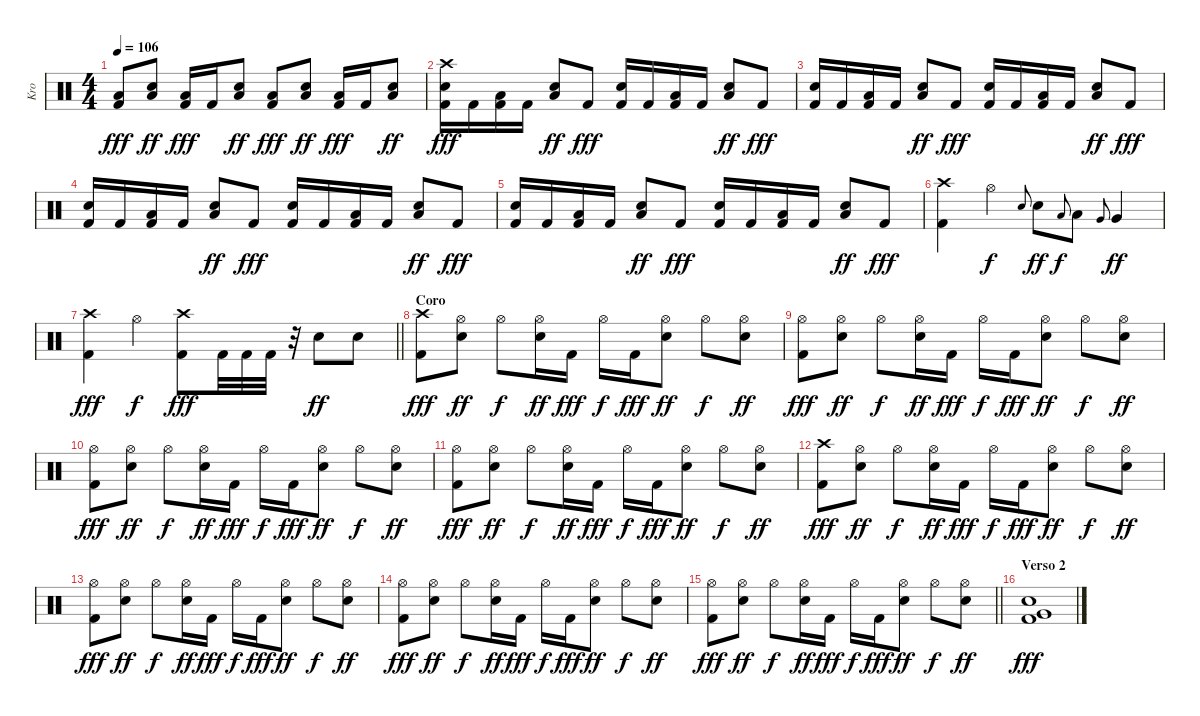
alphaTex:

\track ("Kro" "Kro") {instrument percussion}
\staff {score}
\articulation defaults
\ts (4 4)
\tempo 106
\clef neutral
\ks c
("Low Floor Tom (hit)" "Kick (hit) 2").8{dy fff} ("Low Floor Tom (hit)" "Electric Snare (hit)").8{dy ff} ("Low Floor Tom (hit)" "Kick (hit) 2").16{dy fff} "Kick (hit) 2".16 ("Low Floor Tom (hit)" "Electric Snare (hit)").8{dy ff} ("Low Floor Tom (hit)" "Kick (hit) 2").8{dy fff} ("Low Floor Tom (hit)" "Electric Snare (hit)").8{dy ff} ("Low Floor Tom (hit)" "Kick (hit) 2").16{dy fff} "Kick (hit) 2".16 ("Low Floor Tom (hit)" "Electric Snare (hit)").8{dy ff} |
("Crash high (hit)" "Electric Snare (hit)" "Kick (hit) 2").16{dy fff} "Kick (hit) 2".16 ("Low Floor Tom (hit)" "Kick (hit) 2").16 "Kick (hit) 2".16 ("Low Floor Tom (hit)" "Electric Snare (hit)").8{dy ff} "Kick (hit) 2".8{dy fff} ("Electric Snare (hit)" "Kick (hit) 2").16 "Kick (hit) 2".16 ("Low Floor Tom (hit)" "Kick (hit) 2").16 "Kick (hit) 2".16 ("Low Floor Tom (hit)" "Electric Snare (hit)").8{dy ff} "Kick (hit) 2".8{dy fff} |
("Electric Snare (hit)" "Kick (hit) 2").16 "Kick (hit) 2".16 ("Low Floor Tom (hit)" "Kick (hit) 2").16 "Kick (hit) 2".16 ("Low Floor Tom (hit)" "Electric Snare (hit)").8{dy ff} "Kick (hit) 2".8{dy fff} ("Electric Snare (hit)" "Kick (hit) 2").16 "Kick (hit) 2".16 ("Low Floor Tom (hit)" "Kick (hit) 2").16 "Kick (hit) 2".16 ("Low Floor Tom (hit)" "Electric Snare (hit)").8{dy ff} "Kick (hit) 2".8{dy fff} |
("Electric Snare (hit)" "Kick (hit) 2").16 "Kick (hit) 2".16 ("Low Floor Tom (hit)" "Kick (hit) 2").16 "Kick (hit) 2".16 ("Low Floor Tom (hit)" "Electric Snare (hit)").8{dy ff} "Kick (hit) 2".8{dy fff} ("Electric Snare (hit)" "Kick (hit) 2").16 "Kick (hit) 2".16 ("Low Floor Tom (hit)" "Kick (hit) 2").16 "Kick (hit) 2".16 ("Low Floor Tom (hit)" "Electric Snare (hit)").8{dy ff} "Kick (hit) 2".8{dy fff} |
("Electric Snare (hit)" "Kick (hit) 2").16 "Kick (hit) 2".16 ("Low Floor Tom (hit)" "Kick (hit) 2").16 "Kick (hit) 2".16 ("Low Floor Tom (hit)" "Electric Snare (hit)").8{dy ff} "Kick (hit) 2".8{dy fff} ("Electric Snare (hit)" "Kick (hit) 2").16 "Kick (hit) 2".16 ("Low Floor Tom (hit)" "Kick (hit) 2").16 "Kick (hit) 2".16 ("Low Floor Tom (hit)" "Electric Snare (hit)").8{dy ff} "Kick (hit) 2".8{dy fff} |
("Crash high (hit)" "Kick (hit) 2").4 "Hi-Hat (open)".4{dy f} "Electric Snare (hit)".8{gr onbeat} "Electric Snare (hit)".8{dy ff} "Low Tom (hit)".8{gr onbeat dy f} "Low Tom (hit)".8 "Very Low Tom (hit)".8{gr onbeat} "Very Low Tom (hit)".4{dy ff} |
\barLineRight lightlight
("Crash high (hit)" "Kick (hit) 2").4{dy fff} "Hi-Hat (open)".4{dy f} ("Crash high (hit)" "Kick (hit) 2").8{dy fff} "Kick (hit) 2".32 "Kick (hit) 2".32 "Kick (hit) 2".32 r.32 "Electric Snare (hit)".8{dy ff} "Electric Snare (hit)".8 |
\section ("" "Coro")
("Crash high (hit)" "Kick (hit) 2").8{dy fff} ("Hi-Hat (open)" "Electric Snare (hit)").8{dy ff} "Hi-Hat (open)".8{dy f} ("Hi-Hat (open)" "Electric Snare (hit)").16{dy ff} "Kick (hit) 2".16{dy fff} "Hi-Hat (open)".16{dy f} "Kick (hit) 2".16{dy fff} ("Hi-Hat (open)" "Electric Snare (hit)").8{dy ff} "Hi-Hat (open)".8{dy f} ("Hi-Hat (open)" "Electric Snare (hit)").8{dy ff} |
("Hi-Hat (open)" "Kick (hit) 2").8{dy fff} ("Hi-Hat (open)" "Electric Snare (hit)").8{dy ff} "Hi-Hat (open)".8{dy f} ("Hi-Hat (open)" "Electric Snare (hit)").16{dy ff} "Kick (hit) 2".16{dy fff} "Hi-Hat (open)".16{dy f} "Kick (hit) 2".16{dy fff} ("Hi-Hat (open)" "Electric Snare (hit)").8{dy ff} "Hi-Hat (open)".8{dy f} ("Hi-Hat (open)" "Electric Snare (hit)").8{dy ff} |
("Hi-Hat (open)" "Kick (hit) 2").8{dy fff} ("Hi-Hat (open)" "Electric Snare (hit)").8{dy ff} "Hi-Hat (open)".8{dy f} ("Hi-Hat (open)" "Electric Snare (hit)").16{dy ff} "Kick (hit) 2".16{dy fff} "Hi-Hat (open)".16{dy f} "Kick (hit) 2".16{dy fff} ("Hi-Hat (open)" "Electric Snare (hit)").8{dy ff} "Hi-Hat (open)".8{dy f} ("Hi-Hat (open)" "Electric Snare (hit)").8{dy ff} |
("Hi-Hat (open)" "Kick (hit) 2").8{dy fff} ("Hi-Hat (open)" "Electric Snare (hit)").8{dy ff} "Hi-Hat (open)".8{dy f} ("Hi-Hat (open)" "Electric Snare (hit)").16{dy ff} "Kick (hit) 2".16{dy fff} "Hi-Hat (open)".16{dy f} "Kick (hit) 2".16{dy fff} ("Hi-Hat (open)" "Electric Snare (hit)").8{dy ff} "Hi-Hat (open)".8{dy f} ("Hi-Hat (open)" "Electric Snare (hit)").8{dy ff} |
("Crash high (hit)" "Kick (hit) 2").8{dy fff} ("Hi-Hat (open)" "Electric Snare (hit)").8{dy ff} "Hi-Hat (open)".8{dy f} ("Hi-Hat (open)" "Electric Snare (hit)").16{dy ff} "Kick (hit) 2".16{dy fff} "Hi-Hat (open)".16{dy f} "Kick (hit) 2".16{dy fff} ("Hi-Hat (open)" "Electric Snare (hit)").8{dy ff} "Hi-Hat (open)".8{dy f} ("Hi-Hat (open)" "Electric Snare (hit)").8{dy ff} |
("Hi-Hat (open)" "Kick (hit) 2").8{dy fff} ("Hi-Hat (open)" "Electric Snare (hit)").8{dy ff} "Hi-Hat (open)".8{dy f} ("Hi-Hat (open)" "Electric Snare (hit)").16{dy ff} "Kick (hit) 2".16{dy fff} "Hi-Hat (open)".16{dy f} "Kick (hit) 2".16{dy fff} ("Hi-Hat (open)" "Electric Snare (hit)").8{dy ff} "Hi-Hat (open)".8{dy f} ("Hi-Hat (open)" "Electric Snare (hit)").8{dy ff} |
("Hi-Hat (open)" "Kick (hit) 2").8{dy fff} ("Hi-Hat (open)" "Electric Snare (hit)").8{dy ff} "Hi-Hat (open)".8{dy f} ("Hi-Hat (open)" "Electric Snare (hit)").16{dy ff} "Kick (hit) 2".16{dy fff} "Hi-Hat (open)".16{dy f} "Kick (hit) 2".16{dy fff} ("Hi-Hat (open)" "Electric Snare (hit)").8{dy ff} "Hi-Hat (open)".8{dy f} ("Hi-Hat (open)" "Electric Snare (hit)").8{dy ff} |
\barLineRight lightlight
("Hi-Hat (open)" "Kick (hit) 2").8{dy fff} ("Hi-Hat (open)" "Electric Snare (hit)").8{dy ff} "Hi-Hat (open)".8{dy f} ("Hi-Hat (open)" "Electric Snare (hit)").16{dy ff} "Kick (hit) 2".16{dy fff} "Hi-Hat (open)".16{dy f} "Kick (hit) 2".16{dy fff} ("Hi-Hat (open)" "Electric Snare (hit)").8{dy ff} "Hi-Hat (open)".8{dy f} ("Hi-Hat (open)" "Electric Snare (hit)").8{dy ff} |
\section ("" "Verso 2")
("Very Low Tom (hit)" "Electric Snare (hit)" "Kick (hit) 2").1{dy fff}
